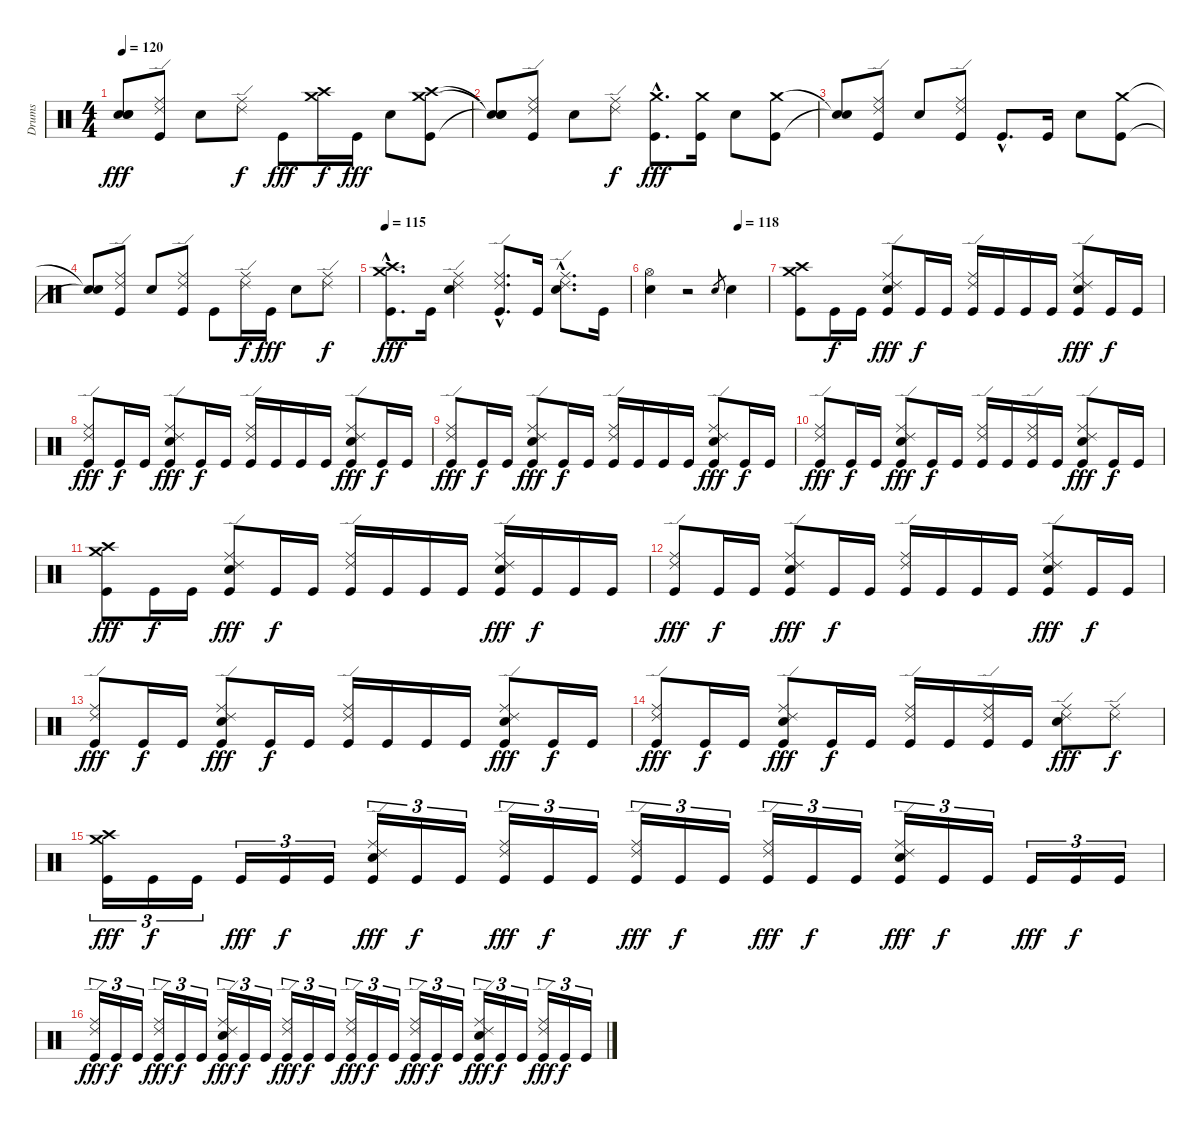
\track ("Drums" "Drums") {instrument percussion}
\staff {score}
\articulation defaults
\ts (4 4)
\tempo 120
\clef neutral
\ks c
("Snare (hit)"{t} "Snare (hit)"{t} "Snare (hit)"{t}).8{dy fff} ("Ride (edge) 2" "Ride (middle)" "Kick (hit)").8 "Snare (hit) 2".8 ("Ride (edge) 2" "Ride (middle)").8{dy f} "Kick (hit)".8{dy fff} ("Crash high (hit)" "Crash medium (hit)").16{dy f} "Kick (hit)".16{dy fff} "Snare (hit) 2".8 ("Crash high (hit)" "Crash medium (hit)" "Kick (hit)").8 |
("Snare (hit)"{t} "Snare (hit)"{t} "Snare (hit)"{t}).8 ("Ride (edge) 2" "Ride (middle)" "Kick (hit)").8 "Snare (hit) 2".8 ("Ride (edge) 2" "Ride (middle)").8{dy f} ("Crash medium (hit)"{hac} "Kick (hit)"{hac}).8{d dy fff} ("Crash medium (hit)" "Kick (hit)").16 "Snare (hit) 2".8 ("Crash medium (hit)" "Kick (hit)").8 |
("Snare (hit)"{t} "Snare (hit)"{t}).8 ("Ride (edge) 2" "Ride (middle)" "Kick (hit)").8 "Snare (hit) 2".8 ("Ride (edge) 2" "Ride (middle)" "Kick (hit)").8 "Kick (hit)"{hac}.8{d} "Kick (hit)".16 "Snare (hit) 2".8 ("Crash medium (hit)" "Kick (hit)").8 |
("Snare (hit)"{t} "Snare (hit)"{t}).8 ("Ride (edge) 2" "Ride (middle)" "Kick (hit)").8 "Snare (hit) 2".8 ("Ride (edge) 2" "Ride (middle)" "Kick (hit)").8 "Kick (hit)".8 ("Ride (edge) 2" "Ride (middle)").16{dy f} "Kick (hit)".16{dy fff} "Snare (hit) 2".8 ("Ride (edge) 2" "Ride (middle)").8{dy f} |
\tempo 115
("Crash high (hit)"{hac} "Crash medium (hit)"{hac} "Kick (hit)"{hac}).8{d dy fff} "Kick (hit)".16 ("Ride (edge) 2" "Ride (middle)" "Snare (hit) 2").4 ("Ride (edge) 2"{hac} "Ride (middle)"{hac} "Kick (hit)"{hac}).8{d} "Kick (hit)".16 ("Ride (edge) 2"{hac} "Ride (middle)"{hac} "Snare (hit) 2"{hac}).8{d} "Kick (hit)".16 |
\tempo (118 0.75)
("Hi-Hat (open)" "Snare (hit) 2").4 r.2 "Snare (hit) 2".8{gr} "Snare (hit) 2".4 |
("Crash high (hit)" "Crash medium (hit)" "Kick (hit)").8 "Kick (hit)".16{dy f} "Kick (hit)".16 ("Ride (edge) 2" "Ride (middle)" "Snare (hit) 2" "Kick (hit)").8{dy fff} "Kick (hit)".16{dy f} "Kick (hit)".16 ("Ride (edge) 2" "Ride (middle)" "Kick (hit)").16 "Kick (hit)".16 "Kick (hit)".16 "Kick (hit)".16 ("Ride (edge) 2" "Ride (middle)" "Snare (hit) 2" "Kick (hit)").8{dy fff} "Kick (hit)".16{dy f} "Kick (hit)".16 |
("Ride (edge) 2" "Ride (middle)" "Kick (hit)").8{dy fff} "Kick (hit)".16{dy f} "Kick (hit)".16 ("Ride (edge) 2" "Ride (middle)" "Snare (hit) 2" "Kick (hit)").8{dy fff} "Kick (hit)".16{dy f} "Kick (hit)".16 ("Ride (edge) 2" "Ride (middle)" "Kick (hit)").16 "Kick (hit)".16 "Kick (hit)".16 "Kick (hit)".16 ("Ride (edge) 2" "Ride (middle)" "Snare (hit) 2" "Kick (hit)").8{dy fff} "Kick (hit)".16{dy f} "Kick (hit)".16 |
("Ride (edge) 2" "Ride (middle)" "Kick (hit)").8{dy fff} "Kick (hit)".16{dy f} "Kick (hit)".16 ("Ride (edge) 2" "Ride (middle)" "Snare (hit) 2" "Kick (hit)").8{dy fff} "Kick (hit)".16{dy f} "Kick (hit)".16 ("Ride (edge) 2" "Ride (middle)" "Kick (hit)").16 "Kick (hit)".16 "Kick (hit)".16 "Kick (hit)".16 ("Ride (edge) 2" "Ride (middle)" "Snare (hit) 2" "Kick (hit)").8{dy fff} "Kick (hit)".16{dy f} "Kick (hit)".16 |
("Ride (edge) 2" "Ride (middle)" "Kick (hit)").8{dy fff} "Kick (hit)".16{dy f} "Kick (hit)".16 ("Ride (edge) 2" "Ride (middle)" "Snare (hit) 2" "Kick (hit)").8{dy fff} "Kick (hit)".16{dy f} "Kick (hit)".16 ("Ride (edge) 2" "Ride (middle)" "Kick (hit)").16 "Kick (hit)".16 ("Ride (edge) 2" "Ride (middle)" "Kick (hit)").16 "Kick (hit)".16 ("Ride (edge) 2" "Ride (middle)" "Snare (hit) 2" "Kick (hit)").8{dy fff} "Kick (hit)".16{dy f} "Kick (hit)".16 |
("Crash high (hit)" "Crash medium (hit)" "Kick (hit)").8{dy fff} "Kick (hit)".16{dy f} "Kick (hit)".16 ("Ride (edge) 2" "Ride (middle)" "Snare (hit) 2" "Kick (hit)").8{dy fff} "Kick (hit)".16{dy f} "Kick (hit)".16 ("Ride (edge) 2" "Ride (middle)" "Kick (hit)").16 "Kick (hit)".16 "Kick (hit)".16 "Kick (hit)".16 ("Ride (edge) 2" "Ride (middle)" "Snare (hit) 2" "Kick (hit)").16{dy fff} "Kick (hit)".16{dy f} "Kick (hit)".16 "Kick (hit)".16 |
("Ride (edge) 2" "Ride (middle)" "Kick (hit)").8{dy fff} "Kick (hit)".16{dy f} "Kick (hit)".16 ("Ride (edge) 2" "Ride (middle)" "Snare (hit) 2" "Kick (hit)").8{dy fff} "Kick (hit)".16{dy f} "Kick (hit)".16 ("Ride (edge) 2" "Ride (middle)" "Kick (hit)").16 "Kick (hit)".16 "Kick (hit)".16 "Kick (hit)".16 ("Ride (edge) 2" "Ride (middle)" "Snare (hit) 2" "Kick (hit)").8{dy fff} "Kick (hit)".16{dy f} "Kick (hit)".16 |
("Ride (edge) 2" "Ride (middle)" "Kick (hit)").8{dy fff} "Kick (hit)".16{dy f} "Kick (hit)".16 ("Ride (edge) 2" "Ride (middle)" "Snare (hit) 2" "Kick (hit)").8{dy fff} "Kick (hit)".16{dy f} "Kick (hit)".16 ("Ride (edge) 2" "Ride (middle)" "Kick (hit)").16 "Kick (hit)".16 "Kick (hit)".16 "Kick (hit)".16 ("Ride (edge) 2" "Ride (middle)" "Snare (hit) 2" "Kick (hit)").8{dy fff} "Kick (hit)".16{dy f} "Kick (hit)".16 |
("Ride (edge) 2" "Ride (middle)" "Kick (hit)").8{dy fff} "Kick (hit)".16{dy f} "Kick (hit)".16 ("Ride (edge) 2" "Ride (middle)" "Snare (hit) 2" "Kick (hit)").8{dy fff} "Kick (hit)".16{dy f} "Kick (hit)".16 ("Ride (edge) 2" "Ride (middle)" "Kick (hit)").16 "Kick (hit)".16 ("Ride (edge) 2" "Ride (middle)" "Kick (hit)").16 "Kick (hit)".16 ("Ride (edge) 2" "Ride (middle)" "Snare (hit) 2").8{dy fff} ("Ride (edge) 2" "Ride (middle)").8{dy f} |
("Crash high (hit)" "Crash medium (hit)" "Kick (hit)").16{tu (3 2) dy fff} "Kick (hit)".16{tu (3 2) dy f} "Kick (hit)".16{tu (3 2)} "Kick (hit)".16{tu (3 2) dy fff} "Kick (hit)".16{tu (3 2) dy f} "Kick (hit)".16{tu (3 2)} ("Ride (edge) 2" "Ride (middle)" "Snare (hit) 2" "Kick (hit)").16{tu (3 2) dy fff} "Kick (hit)".16{tu (3 2) dy f} "Kick (hit)".16{tu (3 2)} ("Ride (edge) 2" "Ride (middle)" "Kick (hit)").16{tu (3 2) dy fff} "Kick (hit)".16{tu (3 2) dy f} "Kick (hit)".16{tu (3 2)} ("Ride (edge) 2" "Ride (middle)" "Kick (hit)").16{tu (3 2) dy fff} "Kick (hit)".16{tu (3 2) dy f} "Kick (hit)".16{tu (3 2)} ("Ride (edge) 2" "Ride (middle)" "Kick (hit)").16{tu (3 2) dy fff} "Kick (hit)".16{tu (3 2) dy f} "Kick (hit)".16{tu (3 2)} ("Ride (edge) 2" "Ride (middle)" "Snare (hit) 2" "Kick (hit)").16{tu (3 2) dy fff} "Kick (hit)".16{tu (3 2) dy f} "Kick (hit)".16{tu (3 2)} "Kick (hit)".16{tu (3 2) dy fff} "Kick (hit)".16{tu (3 2) dy f} "Kick (hit)".16{tu (3 2)} |
("Ride (edge) 2" "Ride (middle)" "Kick (hit)").16{tu (3 2) dy fff} "Kick (hit)".16{tu (3 2) dy f} "Kick (hit)".16{tu (3 2)} ("Ride (edge) 2" "Ride (middle)" "Kick (hit)").16{tu (3 2) dy fff} "Kick (hit)".16{tu (3 2) dy f} "Kick (hit)".16{tu (3 2)} ("Ride (edge) 2" "Ride (middle)" "Snare (hit) 2" "Kick (hit)").16{tu (3 2) dy fff} "Kick (hit)".16{tu (3 2) dy f} "Kick (hit)".16{tu (3 2)} ("Ride (edge) 2" "Ride (middle)" "Kick (hit)").16{tu (3 2) dy fff} "Kick (hit)".16{tu (3 2) dy f} "Kick (hit)".16{tu (3 2)} ("Ride (edge) 2" "Ride (middle)" "Kick (hit)").16{tu (3 2) dy fff} "Kick (hit)".16{tu (3 2) dy f} "Kick (hit)".16{tu (3 2)} ("Ride (edge) 2" "Ride (middle)" "Kick (hit)").16{tu (3 2) dy fff} "Kick (hit)".16{tu (3 2) dy f} "Kick (hit)".16{tu (3 2)} ("Ride (edge) 2" "Ride (middle)" "Snare (hit) 2" "Kick (hit)").16{tu (3 2) dy fff} "Kick (hit)".16{tu (3 2) dy f} "Kick (hit)".16{tu (3 2)} ("Ride (edge) 2" "Ride (middle)" "Kick (hit)").16{tu (3 2) dy fff} "Kick (hit)".16{tu (3 2) dy f} "Kick (hit)".16{tu (3 2)}
